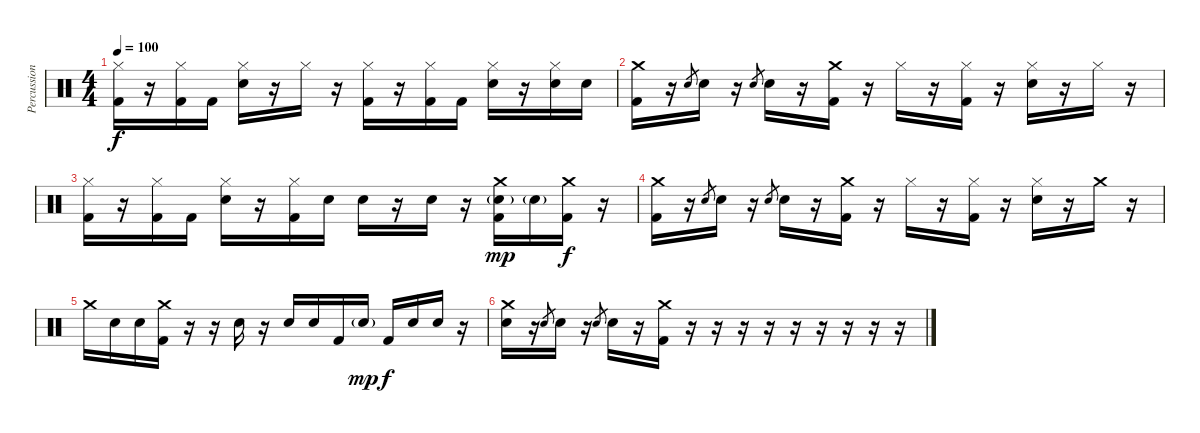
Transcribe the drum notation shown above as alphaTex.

\track ("Percussion" "Percussion") {instrument percussion}
\staff {score}
\articulation defaults
\ts (4 4)
\tempo 100
\clef neutral
\ks c
("Hi-Hat (closed)" "Kick (hit) 2").16{dy f} r.16 ("Hi-Hat (closed)" "Kick (hit) 2").16 "Kick (hit) 2".16 ("Hi-Hat (closed)" "Snare (hit) 2").16 r.16 "Hi-Hat (closed)".16 r.16 ("Hi-Hat (closed)" "Kick (hit) 2").16 r.16 ("Hi-Hat (closed)" "Kick (hit) 2").16 "Kick (hit) 2".16 ("Hi-Hat (closed)" "Snare (hit) 2").16 r.16 ("Hi-Hat (closed)" "Snare (hit) 2").16 "Snare (hit) 2".16 |
("Crash medium (hit)" "Kick (hit) 2").16 r.16 "Snare (hit) 2".8{gr} "Snare (hit) 2".16 r.16 "Snare (hit) 2".8{gr} "Snare (hit) 2".16 r.16 ("Crash medium (hit)" "Kick (hit) 2").16 r.16 "Hi-Hat (closed)".16 r.16 ("Hi-Hat (closed)" "Kick (hit) 2").16 r.16 ("Hi-Hat (closed)" "Snare (hit) 2").16 r.16 "Hi-Hat (closed)".16 r.16 |
("Hi-Hat (closed)" "Kick (hit) 2").16 r.16 ("Hi-Hat (closed)" "Kick (hit) 2").16 "Kick (hit) 2".16 ("Hi-Hat (closed)" "Snare (hit) 2").16 r.16 ("Hi-Hat (closed)" "Kick (hit) 2").16 "Snare (hit) 2".16 "Snare (hit) 2".16 r.16 "Snare (hit) 2".16 r.16 ("Crash medium (hit)" "Snare (hit) 2"{g} "Kick (hit) 2").16{dy mp} "Snare (hit) 2"{g}.16 ("Crash medium (hit)" "Kick (hit) 2").16{dy f} r.16 |
("Crash medium (hit)" "Kick (hit) 2").16 r.16 "Snare (hit) 2".8{gr} "Snare (hit) 2".16 r.16 "Snare (hit) 2".8{gr} "Snare (hit) 2".16 r.16 ("Crash medium (hit)" "Kick (hit) 2").16 r.16 "Hi-Hat (closed)".16 r.16 ("Hi-Hat (closed)" "Kick (hit) 2").16 r.16 ("Hi-Hat (closed)" "Snare (hit) 2").16 r.16 "Crash medium (hit)".16 r.16 |
"Crash medium (hit)".16 "Snare (hit) 2".16 "Snare (hit) 2".16 ("Crash medium (hit)" "Kick (hit) 2").16 r.16 r.16 "Snare (hit) 2".16 r.16 "Snare (hit) 2".16 "Snare (hit) 2".16 "Kick (hit) 2".16 "Snare (hit) 2"{g}.16{dy mp} "Kick (hit) 2".16{dy f} "Snare (hit) 2".16 "Snare (hit) 2".16 r.16 |
("Crash medium (hit)" "Snare (hit) 2").16 r.16 "Snare (hit) 2".8{gr} "Snare (hit) 2".16 r.16 "Snare (hit) 2".8{gr} "Snare (hit) 2".16 r.16 ("Crash medium (hit)" "Kick (hit) 2").16 r.16 r.16 r.16 r.16 r.16 r.16 r.16 r.16 r.16
